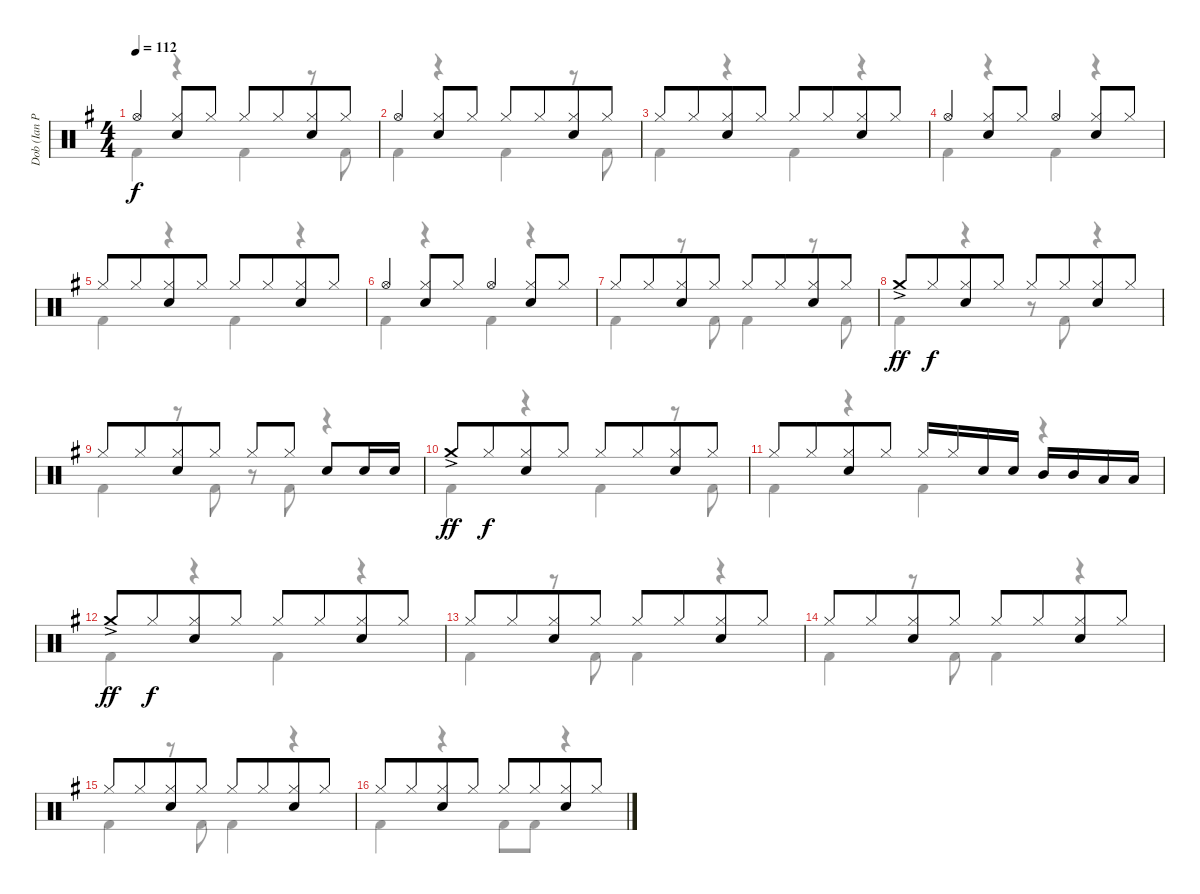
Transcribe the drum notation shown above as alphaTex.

\track ("Dob (Ian Paice)" "Dob (Ian P") {instrument percussion}
\staff {score}
\articulation defaults
\voice
\ts (4 4)
\tempo 112
\clef neutral
\ks g "Hi-Hat (open)".4{dy f}
("Hi-Hat (closed)" "Electric Snare (hit)").8 "Hi-Hat (closed)".8 "Hi-Hat (closed)".8 "Hi-Hat (closed)".8{beam merge} ("Hi-Hat (closed)" "Electric Snare (hit)").8 "Hi-Hat (closed)".8 |
"Hi-Hat (open)".4 ("Hi-Hat (closed)" "Electric Snare (hit)").8 "Hi-Hat (closed)".8 "Hi-Hat (closed)".8 "Hi-Hat (closed)".8{beam merge} ("Hi-Hat (closed)" "Electric Snare (hit)").8 "Hi-Hat (closed)".8 |
"Hi-Hat (closed)".8 "Hi-Hat (closed)".8{beam merge} ("Hi-Hat (closed)" "Electric Snare (hit)").8 "Hi-Hat (closed)".8 "Hi-Hat (closed)".8 "Hi-Hat (closed)".8{beam merge} ("Hi-Hat (closed)" "Electric Snare (hit)").8 "Hi-Hat (closed)".8 |
"Hi-Hat (open)".4 ("Hi-Hat (closed)" "Electric Snare (hit)").8 "Hi-Hat (closed)".8 "Hi-Hat (open)".4 ("Hi-Hat (closed)" "Electric Snare (hit)").8 "Hi-Hat (closed)".8 |
"Hi-Hat (closed)".8 "Hi-Hat (closed)".8{beam merge} ("Hi-Hat (closed)" "Electric Snare (hit)").8 "Hi-Hat (closed)".8 "Hi-Hat (closed)".8 "Hi-Hat (closed)".8{beam merge} ("Hi-Hat (closed)" "Electric Snare (hit)").8 "Hi-Hat (closed)".8 |
"Hi-Hat (open)".4 ("Hi-Hat (closed)" "Electric Snare (hit)").8 "Hi-Hat (closed)".8 "Hi-Hat (open)".4 ("Hi-Hat (closed)" "Electric Snare (hit)").8 "Hi-Hat (closed)".8 |
"Hi-Hat (closed)".8 "Hi-Hat (closed)".8{beam merge} ("Hi-Hat (closed)" "Electric Snare (hit)").8 "Hi-Hat (closed)".8 "Hi-Hat (closed)".8 "Hi-Hat (closed)".8{beam merge} ("Hi-Hat (closed)" "Electric Snare (hit)").8 "Hi-Hat (closed)".8 |
"Crash medium (hit)"{ac}.8{dy ff} "Hi-Hat (closed)".8{dy f beam merge} ("Hi-Hat (closed)" "Electric Snare (hit)").8 "Hi-Hat (closed)".8 "Hi-Hat (closed)".8 "Hi-Hat (closed)".8{beam merge} ("Hi-Hat (closed)" "Electric Snare (hit)").8 "Hi-Hat (closed)".8 |
"Hi-Hat (closed)".8 "Hi-Hat (closed)".8{beam merge} ("Hi-Hat (closed)" "Electric Snare (hit)").8 "Hi-Hat (closed)".8 "Hi-Hat (closed)".8 "Hi-Hat (closed)".8 "Electric Snare (hit)".8 "Electric Snare (hit)".16 "Electric Snare (hit)".16 |
"Crash medium (hit)"{ac}.8{dy ff} "Hi-Hat (closed)".8{dy f beam merge} ("Hi-Hat (closed)" "Electric Snare (hit)").8 "Hi-Hat (closed)".8 "Hi-Hat (closed)".8 "Hi-Hat (closed)".8{beam merge} ("Hi-Hat (closed)" "Electric Snare (hit)").8 "Hi-Hat (closed)".8 |
"Hi-Hat (closed)".8 "Hi-Hat (closed)".8{beam merge} ("Hi-Hat (closed)" "Electric Snare (hit)").8 "Hi-Hat (closed)".8 "Hi-Hat (closed)".16 "Hi-Hat (closed)".16 "Electric Snare (hit)".16 "Electric Snare (hit)".16 "Mid Tom (hit)".16 "Mid Tom (hit)".16 "Low Tom (hit)".16 "Low Tom (hit)".16 |
"Crash medium (hit)"{ac}.8{dy ff} "Hi-Hat (closed)".8{dy f beam merge} ("Hi-Hat (closed)" "Electric Snare (hit)").8 "Hi-Hat (closed)".8 "Hi-Hat (closed)".8 "Hi-Hat (closed)".8{beam merge} ("Hi-Hat (closed)" "Electric Snare (hit)").8 "Hi-Hat (closed)".8 |
"Hi-Hat (closed)".8 "Hi-Hat (closed)".8{beam merge} ("Hi-Hat (closed)" "Electric Snare (hit)").8 "Hi-Hat (closed)".8 "Hi-Hat (closed)".8 "Hi-Hat (closed)".8{beam merge} ("Hi-Hat (closed)" "Electric Snare (hit)").8 "Hi-Hat (closed)".8 |
"Hi-Hat (closed)".8 "Hi-Hat (closed)".8{beam merge} ("Hi-Hat (closed)" "Electric Snare (hit)").8 "Hi-Hat (closed)".8 "Hi-Hat (closed)".8 "Hi-Hat (closed)".8{beam merge} ("Hi-Hat (closed)" "Electric Snare (hit)").8 "Hi-Hat (closed)".8 |
"Hi-Hat (closed)".8 "Hi-Hat (closed)".8{beam merge} ("Hi-Hat (closed)" "Electric Snare (hit)").8 "Hi-Hat (closed)".8 "Hi-Hat (closed)".8 "Hi-Hat (closed)".8{beam merge} ("Hi-Hat (closed)" "Electric Snare (hit)").8 "Hi-Hat (closed)".8 |
"Hi-Hat (closed)".8 "Hi-Hat (closed)".8{beam merge} ("Hi-Hat (closed)" "Electric Snare (hit)").8 "Hi-Hat (closed)".8 "Hi-Hat (closed)".8 "Hi-Hat (closed)".8{beam merge} ("Hi-Hat (closed)" "Electric Snare (hit)").8 "Hi-Hat (closed)".8
\voice
\clef neutral
\ottava regular
\simile none
\ks g "Kick (hit) 2".4{dy f}
r.4 "Kick (hit) 2".4 r.8 "Kick (hit) 2".8 |
"Kick (hit) 2".4 r.4 "Kick (hit) 2".4 r.8 "Kick (hit) 2".8 |
"Kick (hit) 2".4 r.4 "Kick (hit) 2".4 r.4 |
"Kick (hit) 2".4 r.4 "Kick (hit) 2".4 r.4 |
"Kick (hit) 2".4 r.4 "Kick (hit) 2".4 r.4 |
"Kick (hit) 2".4 r.4 "Kick (hit) 2".4 r.4 |
"Kick (hit) 2".4 r.8 "Kick (hit) 2".8 "Kick (hit) 2".4 r.8 "Kick (hit) 2".8 |
"Kick (hit) 2".4 r.4 r.8 "Kick (hit) 2".8 r.4 |
"Kick (hit) 2".4 r.8 "Kick (hit) 2".8 r.8 "Kick (hit) 2".8 r.4 |
"Kick (hit) 2".4 r.4 "Kick (hit) 2".4 r.8 "Kick (hit) 2".8 |
"Kick (hit) 2".4 r.4 "Kick (hit) 2".4 r.4 |
"Kick (hit) 2".4 r.4 "Kick (hit) 2".4 r.4 |
"Kick (hit) 2".4 r.8 "Kick (hit) 2".8 "Kick (hit) 2".4 r.4 |
"Kick (hit) 2".4 r.8 "Kick (hit) 2".8 "Kick (hit) 2".4 r.4 |
"Kick (hit) 2".4 r.8 "Kick (hit) 2".8 "Kick (hit) 2".4 r.4 |
"Kick (hit) 2".4 r.4 "Kick (hit) 2".8 "Kick (hit) 2".8 r.4
